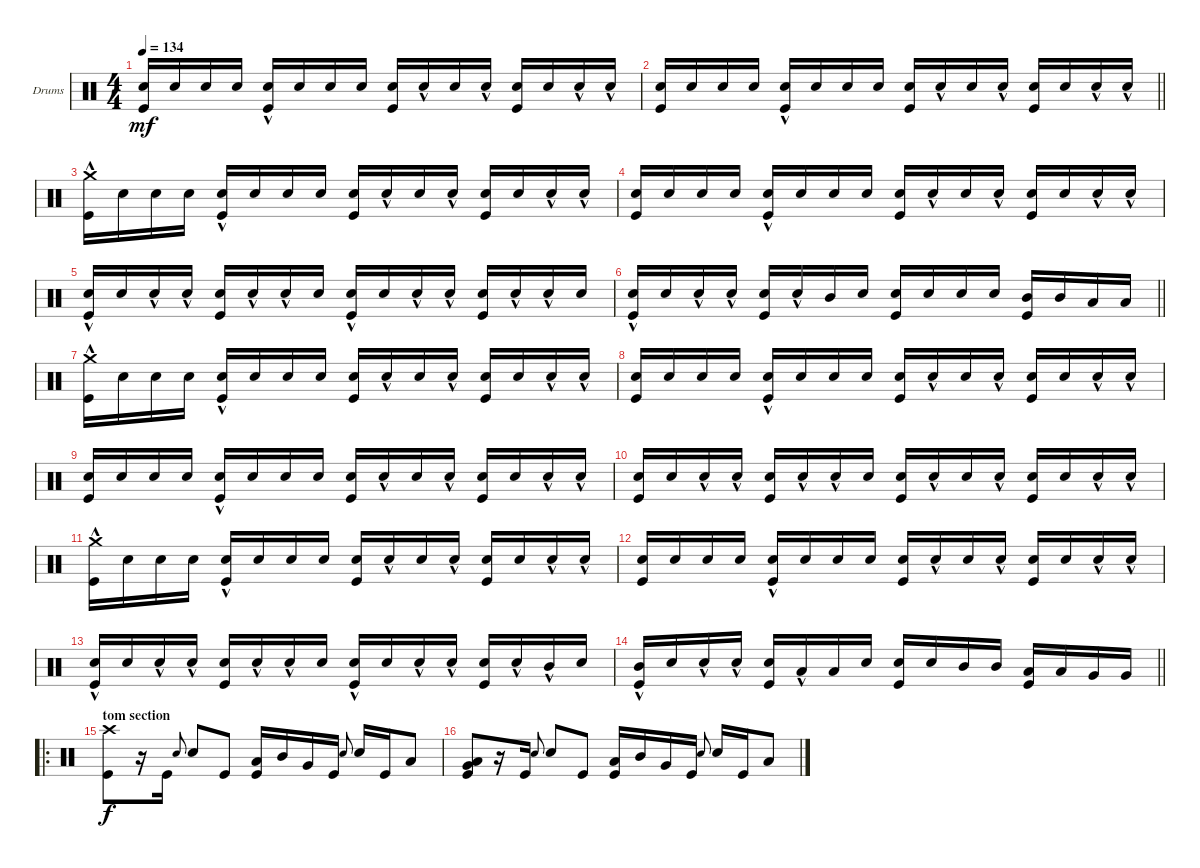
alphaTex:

\bracketExtendMode groupsimilarinstruments
\firstSystemTrackNameOrientation horizontal
\otherSystemsTrackNameOrientation horizontal
\track ("Drumkit" "Drums") {instrument percussion}
\staff {score}
\articulation defaults
\ts (4 4)
\tempo 134
\clef neutral
\ks c
("Snare (hit) 2" "Kick (hit)").16{dy mf} "Snare (hit) 2".16 "Snare (hit) 2".16 "Snare (hit) 2".16 ("Snare (hit) 2"{hac} "Kick (hit)").16 "Snare (hit) 2".16 "Snare (hit) 2".16 "Snare (hit) 2".16 ("Snare (hit) 2" "Kick (hit)").16 "Snare (hit) 2"{hac}.16 "Snare (hit) 2".16 "Snare (hit) 2"{hac}.16 ("Snare (hit) 2" "Kick (hit)").16 "Snare (hit) 2".16 "Snare (hit) 2"{hac}.16 "Snare (hit) 2"{hac}.16 |
\barLineRight lightlight
("Snare (hit) 2" "Kick (hit)").16 "Snare (hit) 2".16 "Snare (hit) 2".16 "Snare (hit) 2".16 ("Snare (hit) 2"{hac} "Kick (hit)").16 "Snare (hit) 2".16 "Snare (hit) 2".16 "Snare (hit) 2".16 ("Snare (hit) 2" "Kick (hit)").16 "Snare (hit) 2"{hac}.16 "Snare (hit) 2".16 "Snare (hit) 2"{hac}.16 ("Snare (hit) 2" "Kick (hit)").16 "Snare (hit) 2".16 "Snare (hit) 2"{hac}.16 "Snare (hit) 2"{hac}.16 |
("Crash medium (hit)"{hac} "Kick (hit)").16 "Snare (hit) 2".16 "Snare (hit) 2".16 "Snare (hit) 2".16 ("Snare (hit) 2"{hac} "Kick (hit)").16 "Snare (hit) 2".16 "Snare (hit) 2".16 "Snare (hit) 2".16 ("Snare (hit) 2" "Kick (hit)").16 "Snare (hit) 2"{hac}.16 "Snare (hit) 2".16 "Snare (hit) 2"{hac}.16 ("Snare (hit) 2" "Kick (hit)").16 "Snare (hit) 2".16 "Snare (hit) 2"{hac}.16 "Snare (hit) 2"{hac}.16 |
("Snare (hit) 2" "Kick (hit)").16 "Snare (hit) 2".16 "Snare (hit) 2".16 "Snare (hit) 2".16 ("Snare (hit) 2"{hac} "Kick (hit)").16 "Snare (hit) 2".16 "Snare (hit) 2".16 "Snare (hit) 2".16 ("Snare (hit) 2" "Kick (hit)").16 "Snare (hit) 2"{hac}.16 "Snare (hit) 2".16 "Snare (hit) 2"{hac}.16 ("Snare (hit) 2" "Kick (hit)").16 "Snare (hit) 2".16 "Snare (hit) 2"{hac}.16 "Snare (hit) 2"{hac}.16 |
("Snare (hit) 2"{hac} "Kick (hit)").16 "Snare (hit) 2".16 "Snare (hit) 2"{hac}.16 "Snare (hit) 2"{hac}.16 ("Snare (hit) 2" "Kick (hit)").16 "Snare (hit) 2"{hac}.16 "Snare (hit) 2"{hac}.16 "Snare (hit) 2".16 ("Snare (hit) 2"{hac} "Kick (hit)").16 "Snare (hit) 2".16 "Snare (hit) 2"{hac}.16 "Snare (hit) 2"{hac}.16 ("Snare (hit) 2" "Kick (hit)").16 "Snare (hit) 2"{hac}.16 "Snare (hit) 2"{hac}.16 "Snare (hit) 2".16 |
\barLineRight lightlight
("Snare (hit) 2"{hac} "Kick (hit)").16 "Snare (hit) 2".16 "Snare (hit) 2"{hac}.16 "Snare (hit) 2"{hac}.16 ("Snare (hit) 2" "Kick (hit)").16 "Snare (hit) 2"{hac}.16 "Mid Tom (hit)".16 "Snare (hit) 2".16 ("Snare (hit) 2" "Kick (hit)").16 "Snare (hit) 2".16 "Snare (hit) 2".16 "Snare (hit) 2".16 ("Mid Tom (hit)" "Kick (hit)").16 "Mid Tom (hit)".16 "Low Tom (hit)".16 "Low Tom (hit)".16 |
("Crash medium (hit)"{hac} "Kick (hit)").16 "Snare (hit) 2".16 "Snare (hit) 2".16 "Snare (hit) 2".16 ("Snare (hit) 2"{hac} "Kick (hit)").16 "Snare (hit) 2".16 "Snare (hit) 2".16 "Snare (hit) 2".16 ("Snare (hit) 2" "Kick (hit)").16 "Snare (hit) 2"{hac}.16 "Snare (hit) 2".16 "Snare (hit) 2"{hac}.16 ("Snare (hit) 2" "Kick (hit)").16 "Snare (hit) 2".16 "Snare (hit) 2"{hac}.16 "Snare (hit) 2"{hac}.16 |
("Snare (hit) 2" "Kick (hit)").16 "Snare (hit) 2".16 "Snare (hit) 2".16 "Snare (hit) 2".16 ("Snare (hit) 2"{hac} "Kick (hit)").16 "Snare (hit) 2".16 "Snare (hit) 2".16 "Snare (hit) 2".16 ("Snare (hit) 2" "Kick (hit)").16 "Snare (hit) 2"{hac}.16 "Snare (hit) 2".16 "Snare (hit) 2"{hac}.16 ("Snare (hit) 2" "Kick (hit)").16 "Snare (hit) 2".16 "Snare (hit) 2"{hac}.16 "Snare (hit) 2"{hac}.16 |
("Snare (hit) 2" "Kick (hit)").16 "Snare (hit) 2".16 "Snare (hit) 2".16 "Snare (hit) 2".16 ("Snare (hit) 2"{hac} "Kick (hit)").16 "Snare (hit) 2".16 "Snare (hit) 2".16 "Snare (hit) 2".16 ("Snare (hit) 2" "Kick (hit)").16 "Snare (hit) 2"{hac}.16 "Snare (hit) 2".16 "Snare (hit) 2"{hac}.16 ("Snare (hit) 2" "Kick (hit)").16 "Snare (hit) 2".16 "Snare (hit) 2"{hac}.16 "Snare (hit) 2"{hac}.16 |
("Snare (hit) 2" "Kick (hit)").16 "Snare (hit) 2".16 "Snare (hit) 2"{hac}.16 "Snare (hit) 2"{hac}.16 ("Snare (hit) 2" "Kick (hit)").16 "Snare (hit) 2"{hac}.16 "Snare (hit) 2"{hac}.16 "Snare (hit) 2".16 ("Snare (hit) 2" "Kick (hit)").16 "Snare (hit) 2"{hac}.16 "Snare (hit) 2".16 "Snare (hit) 2"{hac}.16 ("Snare (hit) 2" "Kick (hit)").16 "Snare (hit) 2".16 "Snare (hit) 2"{hac}.16 "Snare (hit) 2"{hac}.16 |
("Crash medium (hit)"{hac} "Kick (hit)").16 "Snare (hit) 2".16 "Snare (hit) 2".16 "Snare (hit) 2".16 ("Snare (hit) 2"{hac} "Kick (hit)").16 "Snare (hit) 2".16 "Snare (hit) 2".16 "Snare (hit) 2".16 ("Snare (hit) 2" "Kick (hit)").16 "Snare (hit) 2"{hac}.16 "Snare (hit) 2".16 "Snare (hit) 2"{hac}.16 ("Snare (hit) 2" "Kick (hit)").16 "Snare (hit) 2".16 "Snare (hit) 2"{hac}.16 "Snare (hit) 2"{hac}.16 |
("Snare (hit) 2" "Kick (hit)").16 "Snare (hit) 2".16 "Snare (hit) 2".16 "Snare (hit) 2".16 ("Snare (hit) 2"{hac} "Kick (hit)").16 "Snare (hit) 2".16 "Snare (hit) 2".16 "Snare (hit) 2".16 ("Snare (hit) 2" "Kick (hit)").16 "Snare (hit) 2"{hac}.16 "Snare (hit) 2".16 "Snare (hit) 2"{hac}.16 ("Snare (hit) 2" "Kick (hit)").16 "Snare (hit) 2".16 "Snare (hit) 2"{hac}.16 "Snare (hit) 2"{hac}.16 |
("Snare (hit) 2"{hac} "Kick (hit)").16 "Snare (hit) 2".16 "Snare (hit) 2"{hac}.16 "Snare (hit) 2"{hac}.16 ("Snare (hit) 2" "Kick (hit)").16 "Snare (hit) 2"{hac}.16 "Snare (hit) 2"{hac}.16 "Snare (hit) 2".16 ("Snare (hit) 2"{hac} "Kick (hit)").16 "Snare (hit) 2".16 "Snare (hit) 2"{hac}.16 "Snare (hit) 2"{hac}.16 ("Snare (hit) 2" "Kick (hit)").16 "Snare (hit) 2"{hac}.16 "Mid Tom (hit)"{hac}.16 "Snare (hit) 2".16 |
\barLineRight lightlight
("Mid Tom (hit)"{hac} "Kick (hit)").16 "Snare (hit) 2".16 "Snare (hit) 2"{hac}.16 "Snare (hit) 2"{hac}.16 ("Snare (hit) 2" "Kick (hit)").16 "Low Tom (hit)"{hac}.16 "Low Tom (hit)".16 "Snare (hit) 2".16 ("Snare (hit) 2" "Kick (hit)").16 "Snare (hit) 2".16 "Mid Tom (hit)".16 "Mid Tom (hit)".16 ("Low Tom (hit)" "Kick (hit)").16 "Low Tom (hit)".16 "Very Low Tom (hit)".16 "Very Low Tom (hit)".16 |
\ro
\section ("" "tom section")
("Crash high (hit)" "Kick (hit)").8{dy f} r.16 "Kick (hit)".16 "Snare (hit) 2".8{gr onbeat} "Snare (hit) 2".8 "Kick (hit)".8 ("Low Tom (hit)" "Kick (hit)").16 "Mid Tom (hit)".16 "Very Low Tom (hit)".16 "Kick (hit)".16 "Snare (hit) 2".8{gr onbeat} "Snare (hit) 2".16 "Kick (hit)".16 "Low Tom (hit)".8 |
("Low Tom (hit)" "Very Low Tom (hit)" "Kick (hit)").8 r.16 "Kick (hit)".16 "Snare (hit) 2".8{gr onbeat} "Snare (hit) 2".8 "Kick (hit)".8 ("Low Tom (hit)" "Kick (hit)").16 "Mid Tom (hit)".16 "Very Low Tom (hit)".16 "Kick (hit)".16 "Snare (hit) 2".8{gr onbeat} "Snare (hit) 2".16 "Kick (hit)".16 "Low Tom (hit)".8
